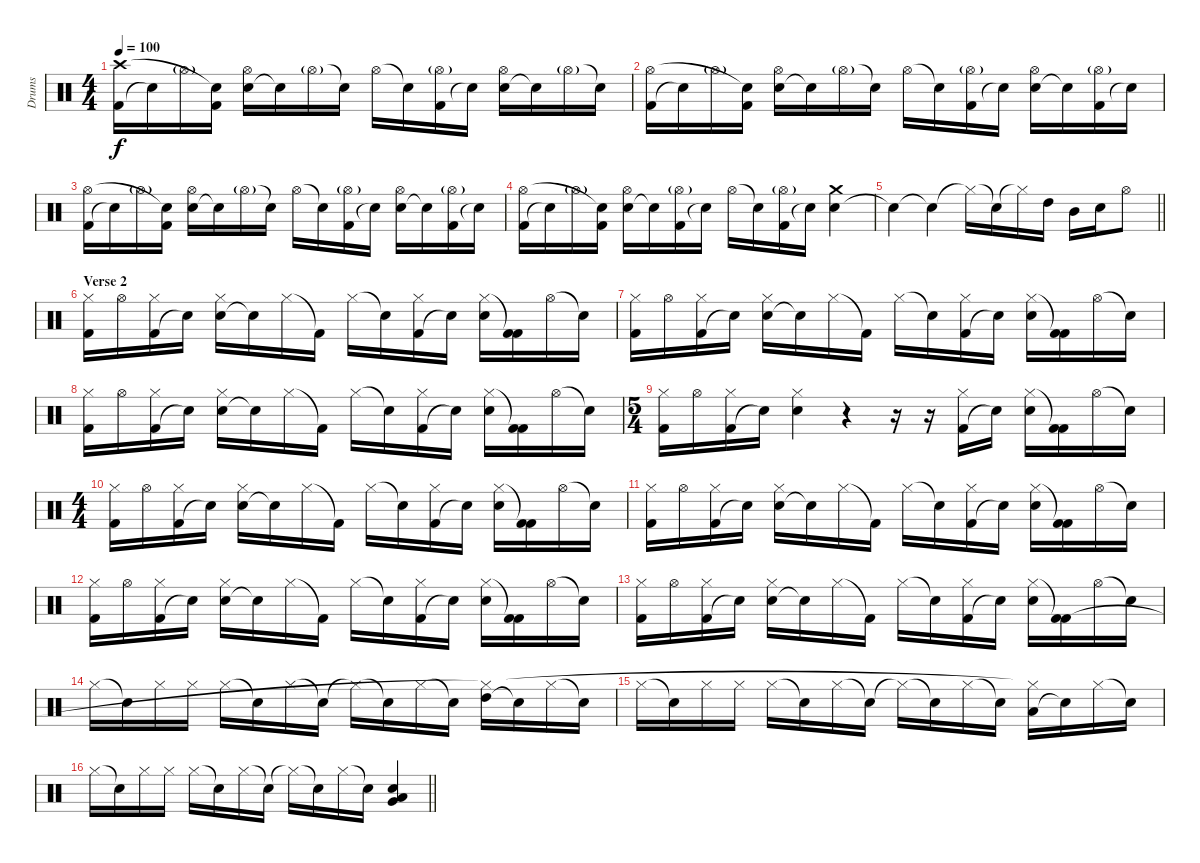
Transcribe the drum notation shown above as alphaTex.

\track ("Drums" "Drums") {instrument percussion}
\staff {score}
\articulation defaults
\ts (4 4)
\tempo 100
\clef neutral
\ks c
("Kick (hit) 2" "Crash high (hit)").16{dy f} "Snare (hit)"{t}.16 "Hi-Hat (open)"{g}.16 ("Kick (hit) 2" "Snare (hit)"{t}).16 ("Snare (hit) 2" "Hi-Hat (open)").16 "Snare (hit)"{t}.16 "Hi-Hat (open)"{g}.16 "Snare (hit)"{t}.16 "Hi-Hat (open)".16 "Snare (hit)"{t}.16 ("Kick (hit) 2" "Hi-Hat (open)"{g}).16 "Snare (hit)"{t}.16 ("Snare (hit) 2" "Hi-Hat (open)").16 "Snare (hit)"{t}.16 "Hi-Hat (open)"{g}.16 "Snare (hit)"{t}.16 |
("Kick (hit) 2" "Hi-Hat (open)").16 "Snare (hit)"{t}.16 "Hi-Hat (open)"{g}.16 ("Kick (hit) 2" "Snare (hit)"{t}).16 ("Snare (hit) 2" "Hi-Hat (open)").16 "Snare (hit)"{t}.16 "Hi-Hat (open)"{g}.16 "Snare (hit)"{t}.16 "Hi-Hat (open)".16 "Snare (hit)"{t}.16 ("Kick (hit) 2" "Hi-Hat (open)"{g}).16 "Snare (hit)"{t}.16 ("Snare (hit) 2" "Hi-Hat (open)").16 "Snare (hit)"{t}.16 ("Kick (hit) 2" "Hi-Hat (open)"{g}).16 "Snare (hit)"{t}.16 |
("Kick (hit) 2" "Hi-Hat (open)").16 "Snare (hit)"{t}.16 "Hi-Hat (open)"{g}.16 ("Kick (hit) 2" "Snare (hit)"{t}).16 ("Snare (hit) 2" "Hi-Hat (open)").16 "Snare (hit)"{t}.16 "Hi-Hat (open)"{g}.16 "Snare (hit)"{t}.16 "Hi-Hat (open)".16 "Snare (hit)"{t}.16 ("Kick (hit) 2" "Hi-Hat (open)"{g}).16 "Snare (hit)"{t}.16 ("Snare (hit) 2" "Hi-Hat (open)").16 "Snare (hit)"{t}.16 ("Kick (hit) 2" "Hi-Hat (open)"{g}).16 "Snare (hit)"{t}.16 |
("Kick (hit) 2" "Hi-Hat (open)").16 "Snare (hit)"{t}.16 "Hi-Hat (open)"{g}.16 ("Kick (hit) 2" "Snare (hit)"{t}).16 ("Snare (hit) 2" "Hi-Hat (open)").16 "Snare (hit)"{t}.16 ("Kick (hit) 2" "Hi-Hat (open)"{g}).16 "Snare (hit)"{t}.16 "Hi-Hat (open)".16 "Snare (hit)"{t}.16 ("Kick (hit) 2" "Hi-Hat (open)"{g}).16 "Snare (hit)"{t}.16 ("Snare (hit) 2" "Crash medium (hit)").4 |
\barLineRight lightlight "Snare (hit)"{t}.4 "Snare (hit)"{t}.4 "Hi-Hat (closed)"{t}.16 "Snare (hit)"{t}.16 "Hi-Hat (closed)"{t}.16 "High Tom (hit)".16 "Mid Tom (hit)".16 "Snare (hit) 2".16 "Hi-Hat (open)".8
|
\section ("" "Verse 2")
("Kick (hit) 2" "Hi-Hat (closed)").16 "Hi-Hat (open)".16 ("Kick (hit) 2" "Hi-Hat (closed)").16 "Snare (hit)"{t}.16 ("Snare (hit) 2" "Hi-Hat (closed)").16 "Snare (hit)"{t}.16 "Hi-Hat (closed)".16 "Kick (hit) 2"{t}.16 "Hi-Hat (closed)".16 "Snare (hit)"{t}.16 ("Kick (hit) 2" "Hi-Hat (closed)").16 "Snare (hit)"{t}.16 ("Snare (hit) 2" "Hi-Hat (closed)").16 ("Kick (hit) 2" "Kick (hit) 2"{t}).16 "Hi-Hat (open)".16 "Snare (hit)"{t}.16 |
("Kick (hit) 2" "Hi-Hat (closed)").16 "Hi-Hat (open)".16 ("Kick (hit) 2" "Hi-Hat (closed)").16 "Snare (hit)"{t}.16 ("Snare (hit) 2" "Hi-Hat (closed)").16 "Snare (hit)"{t}.16 "Hi-Hat (closed)".16 "Kick (hit) 2"{t}.16 "Hi-Hat (closed)".16 "Snare (hit)"{t}.16 ("Kick (hit) 2" "Hi-Hat (closed)").16 "Snare (hit)"{t}.16 ("Snare (hit) 2" "Hi-Hat (closed)").16 ("Kick (hit) 2" "Kick (hit) 2"{t}).16 "Hi-Hat (open)".16 "Snare (hit)"{t}.16 |
("Kick (hit) 2" "Hi-Hat (closed)").16 "Hi-Hat (open)".16 ("Kick (hit) 2" "Hi-Hat (closed)").16 "Snare (hit)"{t}.16 ("Snare (hit) 2" "Hi-Hat (closed)").16 "Snare (hit)"{t}.16 "Hi-Hat (closed)".16 "Kick (hit) 2"{t}.16 "Hi-Hat (closed)".16 "Snare (hit)"{t}.16 ("Kick (hit) 2" "Hi-Hat (closed)").16 "Snare (hit)"{t}.16 ("Snare (hit) 2" "Hi-Hat (closed)").16 ("Kick (hit) 2" "Kick (hit) 2"{t}).16 "Hi-Hat (open)".16 "Snare (hit)"{t}.16 |
\ts (5 4)
("Kick (hit) 2" "Hi-Hat (closed)").16 "Hi-Hat (open)".16 ("Kick (hit) 2" "Hi-Hat (closed)").16 "Snare (hit)"{t}.16 ("Snare (hit) 2" "Hi-Hat (closed)").4 r.4 r.16 r.16 ("Kick (hit) 2" "Hi-Hat (closed)").16 "Snare (hit)"{t}.16 ("Snare (hit) 2" "Hi-Hat (closed)").16 ("Kick (hit) 2" "Kick (hit) 2"{t}).16 "Hi-Hat (open)".16 "Snare (hit)"{t}.16 |
\ts (4 4)
("Kick (hit) 2" "Hi-Hat (closed)").16 "Hi-Hat (open)".16 ("Kick (hit) 2" "Hi-Hat (closed)").16 "Snare (hit)"{t}.16 ("Snare (hit) 2" "Hi-Hat (closed)").16 "Snare (hit)"{t}.16 "Hi-Hat (closed)".16 "Kick (hit) 2"{t}.16 "Hi-Hat (closed)".16 "Snare (hit)"{t}.16 ("Kick (hit) 2" "Hi-Hat (closed)").16 "Snare (hit)"{t}.16 ("Snare (hit) 2" "Hi-Hat (closed)").16 ("Kick (hit) 2" "Kick (hit) 2"{t}).16 "Hi-Hat (open)".16 "Snare (hit)"{t}.16 |
("Kick (hit) 2" "Hi-Hat (closed)").16 "Hi-Hat (open)".16 ("Kick (hit) 2" "Hi-Hat (closed)").16 "Snare (hit)"{t}.16 ("Snare (hit) 2" "Hi-Hat (closed)").16 "Snare (hit)"{t}.16 "Hi-Hat (closed)".16 "Kick (hit) 2"{t}.16 "Hi-Hat (closed)".16 "Snare (hit)"{t}.16 ("Kick (hit) 2" "Hi-Hat (closed)").16 "Snare (hit)"{t}.16 ("Snare (hit) 2" "Hi-Hat (closed)").16 ("Kick (hit) 2" "Kick (hit) 2"{t}).16 "Hi-Hat (open)".16 "Snare (hit)"{t}.16 |
("Kick (hit) 2" "Hi-Hat (closed)").16 "Hi-Hat (open)".16 ("Kick (hit) 2" "Hi-Hat (closed)").16 "Snare (hit)"{t}.16 ("Snare (hit) 2" "Hi-Hat (closed)").16 "Snare (hit)"{t}.16 "Hi-Hat (closed)".16 "Kick (hit) 2"{t}.16 "Hi-Hat (closed)".16 "Snare (hit)"{t}.16 ("Kick (hit) 2" "Hi-Hat (closed)").16 "Snare (hit)"{t}.16 ("Snare (hit) 2" "Hi-Hat (closed)").16 ("Kick (hit) 2" "Kick (hit) 2"{t}).16 "Hi-Hat (open)".16 "Snare (hit)"{t}.16 |
("Kick (hit) 2" "Hi-Hat (closed)").16 "Hi-Hat (open)".16 ("Kick (hit) 2" "Hi-Hat (closed)").16 "Snare (hit)"{t}.16 ("Snare (hit) 2" "Hi-Hat (closed)").16 "Snare (hit)"{t}.16 "Hi-Hat (closed)".16 "Kick (hit) 2"{t}.16 "Hi-Hat (closed)".16 "Snare (hit)"{t}.16 ("Kick (hit) 2" "Hi-Hat (closed)").16 "Snare (hit)"{t}.16 ("Snare (hit) 2" "Hi-Hat (closed)").16 ("Kick (hit) 2" "Kick (hit) 2"{t}).16 "Hi-Hat (open)".16 "Snare (hit)"{t}.16 |
"Hi-Hat (closed)".16 "Snare (hit)"{t}.16 "Hi-Hat (closed)".16 "Hi-Hat (closed)".16 "Hi-Hat (closed)".16 "Snare (hit)"{t}.16 "Hi-Hat (closed)".16 "Snare (hit)"{t}.16 "Hi-Hat (closed)"{t}.16 "Snare (hit)"{t}.16 "Hi-Hat (closed)".16 "Snare (hit)"{t}.16 ("High Tom (hit)" "Hi-Hat (closed)"{t}).16 "Snare (hit)"{t}.16 "Hi-Hat (closed)".16 "Snare (hit)"{t}.16 |
"Hi-Hat (closed)".16 "Snare (hit)"{t}.16 "Hi-Hat (closed)".16 "Hi-Hat (closed)".16 "Hi-Hat (closed)".16 "Snare (hit)"{t}.16 "Hi-Hat (closed)".16 "Snare (hit)"{t}.16 "Hi-Hat (closed)"{t}.16 "Snare (hit)"{t}.16 "Hi-Hat (closed)".16 "Snare (hit)"{t}.16 ("Low Tom (hit)" "Hi-Hat (closed)"{t}).16 "Snare (hit)"{t}.16 "Hi-Hat (closed)".16 "Snare (hit)"{t}.16 |
\barLineRight lightlight "Hi-Hat (closed)".16 "Snare (hit)"{t}.16 "Hi-Hat (closed)".16 "Hi-Hat (closed)".16 "Hi-Hat (closed)".16 "Snare (hit)"{t}.16 "Hi-Hat (closed)".16 "Snare (hit)"{t}.16 "Hi-Hat (closed)"{t}.16 "Snare (hit)"{t}.16 "Hi-Hat (closed)".16 "Snare (hit)"{t}.16
("Low Tom (hit)" "Very Low Tom (hit)" "Snare (hit) 2").4
